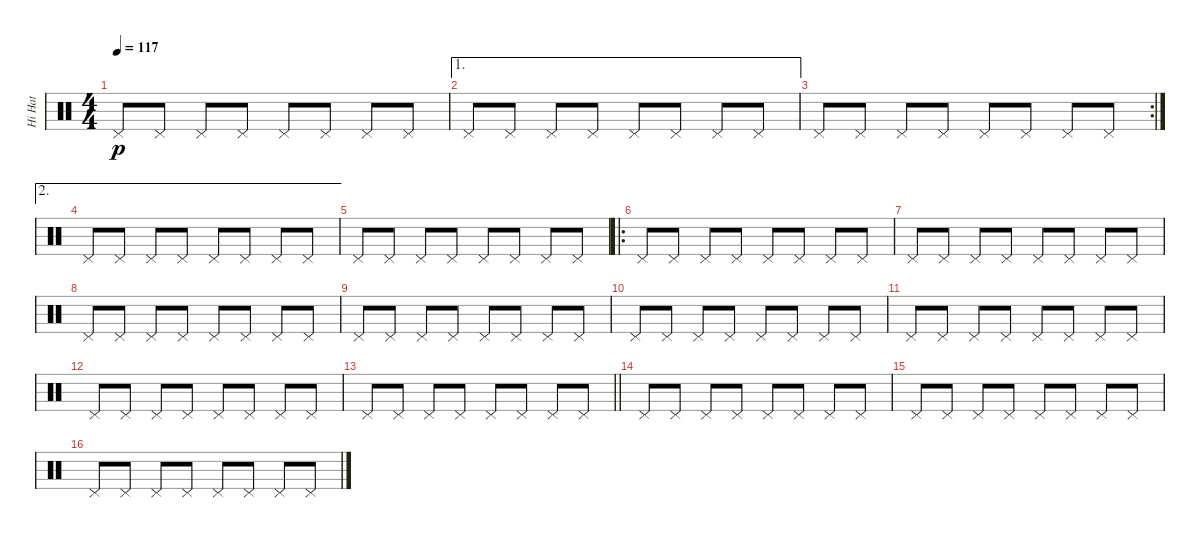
\track ("Hi Hat" "Hi Hat") {instrument percussion}
\staff {score}
\articulation defaults
\ts (4 4)
\tempo 117
\clef neutral
\ks c "Pedal Hi-Hat (hit)".8{dy p} "Pedal Hi-Hat (hit)".8 "Pedal Hi-Hat (hit)".8 "Pedal Hi-Hat (hit)".8 "Pedal Hi-Hat (hit)".8 "Pedal Hi-Hat (hit)".8 "Pedal Hi-Hat (hit)".8 "Pedal Hi-Hat (hit)".8
|
\ae 1 "Pedal Hi-Hat (hit)".8 "Pedal Hi-Hat (hit)".8 "Pedal Hi-Hat (hit)".8 "Pedal Hi-Hat (hit)".8 "Pedal Hi-Hat (hit)".8 "Pedal Hi-Hat (hit)".8 "Pedal Hi-Hat (hit)".8 "Pedal Hi-Hat (hit)".8
|
\rc 2 "Pedal Hi-Hat (hit)".8 "Pedal Hi-Hat (hit)".8 "Pedal Hi-Hat (hit)".8 "Pedal Hi-Hat (hit)".8 "Pedal Hi-Hat (hit)".8 "Pedal Hi-Hat (hit)".8 "Pedal Hi-Hat (hit)".8 "Pedal Hi-Hat (hit)".8
|
\ae 2 "Pedal Hi-Hat (hit)".8 "Pedal Hi-Hat (hit)".8 "Pedal Hi-Hat (hit)".8 "Pedal Hi-Hat (hit)".8 "Pedal Hi-Hat (hit)".8 "Pedal Hi-Hat (hit)".8 "Pedal Hi-Hat (hit)".8 "Pedal Hi-Hat (hit)".8
|
"Pedal Hi-Hat (hit)".8 "Pedal Hi-Hat (hit)".8 "Pedal Hi-Hat (hit)".8 "Pedal Hi-Hat (hit)".8 "Pedal Hi-Hat (hit)".8 "Pedal Hi-Hat (hit)".8 "Pedal Hi-Hat (hit)".8 "Pedal Hi-Hat (hit)".8 |
\ro "Pedal Hi-Hat (hit)".8 "Pedal Hi-Hat (hit)".8 "Pedal Hi-Hat (hit)".8 "Pedal Hi-Hat (hit)".8 "Pedal Hi-Hat (hit)".8 "Pedal Hi-Hat (hit)".8 "Pedal Hi-Hat (hit)".8 "Pedal Hi-Hat (hit)".8
|
"Pedal Hi-Hat (hit)".8 "Pedal Hi-Hat (hit)".8 "Pedal Hi-Hat (hit)".8 "Pedal Hi-Hat (hit)".8 "Pedal Hi-Hat (hit)".8 "Pedal Hi-Hat (hit)".8 "Pedal Hi-Hat (hit)".8 "Pedal Hi-Hat (hit)".8 |
"Pedal Hi-Hat (hit)".8 "Pedal Hi-Hat (hit)".8 "Pedal Hi-Hat (hit)".8 "Pedal Hi-Hat (hit)".8 "Pedal Hi-Hat (hit)".8 "Pedal Hi-Hat (hit)".8 "Pedal Hi-Hat (hit)".8 "Pedal Hi-Hat (hit)".8 |
"Pedal Hi-Hat (hit)".8 "Pedal Hi-Hat (hit)".8 "Pedal Hi-Hat (hit)".8 "Pedal Hi-Hat (hit)".8 "Pedal Hi-Hat (hit)".8 "Pedal Hi-Hat (hit)".8 "Pedal Hi-Hat (hit)".8 "Pedal Hi-Hat (hit)".8 |
"Pedal Hi-Hat (hit)".8 "Pedal Hi-Hat (hit)".8 "Pedal Hi-Hat (hit)".8 "Pedal Hi-Hat (hit)".8 "Pedal Hi-Hat (hit)".8 "Pedal Hi-Hat (hit)".8 "Pedal Hi-Hat (hit)".8 "Pedal Hi-Hat (hit)".8 |
"Pedal Hi-Hat (hit)".8 "Pedal Hi-Hat (hit)".8 "Pedal Hi-Hat (hit)".8 "Pedal Hi-Hat (hit)".8 "Pedal Hi-Hat (hit)".8 "Pedal Hi-Hat (hit)".8 "Pedal Hi-Hat (hit)".8 "Pedal Hi-Hat (hit)".8 |
"Pedal Hi-Hat (hit)".8 "Pedal Hi-Hat (hit)".8 "Pedal Hi-Hat (hit)".8 "Pedal Hi-Hat (hit)".8 "Pedal Hi-Hat (hit)".8 "Pedal Hi-Hat (hit)".8 "Pedal Hi-Hat (hit)".8 "Pedal Hi-Hat (hit)".8 |
\barLineRight lightlight "Pedal Hi-Hat (hit)".8 "Pedal Hi-Hat (hit)".8 "Pedal Hi-Hat (hit)".8 "Pedal Hi-Hat (hit)".8 "Pedal Hi-Hat (hit)".8 "Pedal Hi-Hat (hit)".8 "Pedal Hi-Hat (hit)".8 "Pedal Hi-Hat (hit)".8
|
"Pedal Hi-Hat (hit)".8 "Pedal Hi-Hat (hit)".8 "Pedal Hi-Hat (hit)".8 "Pedal Hi-Hat (hit)".8 "Pedal Hi-Hat (hit)".8 "Pedal Hi-Hat (hit)".8 "Pedal Hi-Hat (hit)".8 "Pedal Hi-Hat (hit)".8 |
"Pedal Hi-Hat (hit)".8 "Pedal Hi-Hat (hit)".8 "Pedal Hi-Hat (hit)".8 "Pedal Hi-Hat (hit)".8 "Pedal Hi-Hat (hit)".8 "Pedal Hi-Hat (hit)".8 "Pedal Hi-Hat (hit)".8 "Pedal Hi-Hat (hit)".8 |
"Pedal Hi-Hat (hit)".8 "Pedal Hi-Hat (hit)".8 "Pedal Hi-Hat (hit)".8 "Pedal Hi-Hat (hit)".8 "Pedal Hi-Hat (hit)".8 "Pedal Hi-Hat (hit)".8 "Pedal Hi-Hat (hit)".8 "Pedal Hi-Hat (hit)".8
